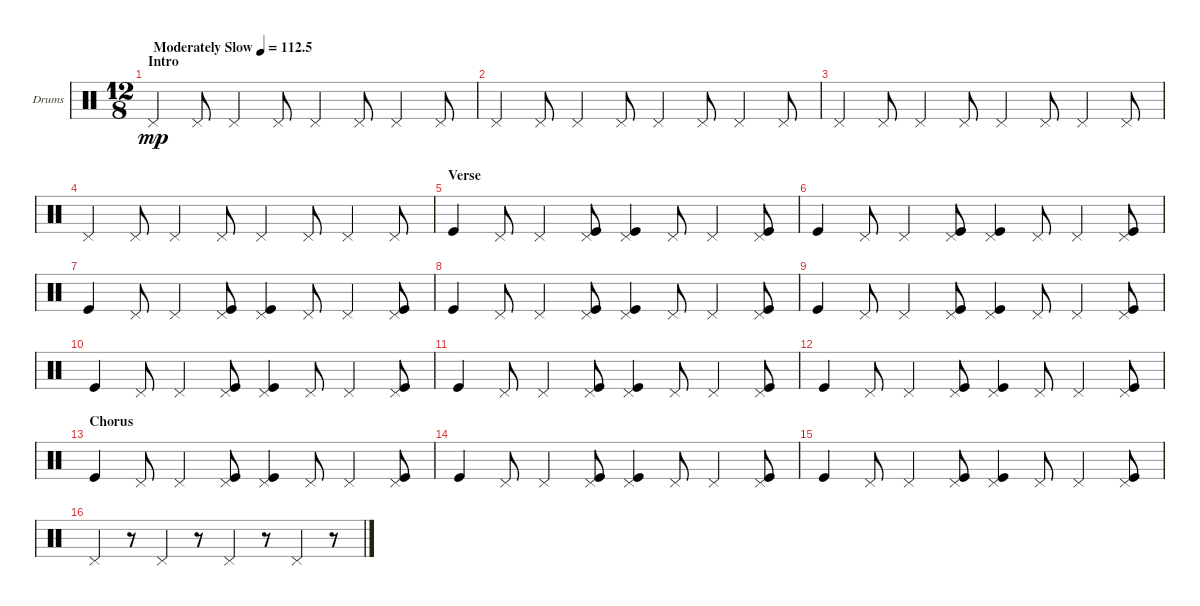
\defaultSystemsLayout 4
\bracketExtendMode groupsimilarinstruments
\firstSystemTrackNameOrientation horizontal
\otherSystemsTrackNameOrientation horizontal
\track ("Drumkit" "Drums") {instrument percussion}
\staff {score}
\articulation defaults
\ts (12 8)
\section ("" "Intro")
\tempo (112.5 "Moderately Slow")
\clef neutral
\scale
0.474178
\ks c "Pedal Hi-Hat (hit)".4{dy mp} "Pedal Hi-Hat (hit)".8 "Pedal Hi-Hat (hit)".4 "Pedal Hi-Hat (hit)".8 "Pedal Hi-Hat (hit)".4 "Pedal Hi-Hat (hit)".8 "Pedal Hi-Hat (hit)".4 "Pedal Hi-Hat (hit)".8
|
\scale
0.262911 "Pedal Hi-Hat (hit)".4 "Pedal Hi-Hat (hit)".8 "Pedal Hi-Hat (hit)".4 "Pedal Hi-Hat (hit)".8 "Pedal Hi-Hat (hit)".4 "Pedal Hi-Hat (hit)".8 "Pedal Hi-Hat (hit)".4 "Pedal Hi-Hat (hit)".8 |
\scale
0.262911 "Pedal Hi-Hat (hit)".4 "Pedal Hi-Hat (hit)".8 "Pedal Hi-Hat (hit)".4 "Pedal Hi-Hat (hit)".8 "Pedal Hi-Hat (hit)".4 "Pedal Hi-Hat (hit)".8 "Pedal Hi-Hat (hit)".4 "Pedal Hi-Hat (hit)".8 |
\scale
0.311111 "Pedal Hi-Hat (hit)".4 "Pedal Hi-Hat (hit)".8 "Pedal Hi-Hat (hit)".4 "Pedal Hi-Hat (hit)".8 "Pedal Hi-Hat (hit)".4 "Pedal Hi-Hat (hit)".8 "Pedal Hi-Hat (hit)".4 "Pedal Hi-Hat (hit)".8 |
\section ("" "Verse")
\scale
0.377778 "Kick (hit)".4 "Pedal Hi-Hat (hit)".8 "Pedal Hi-Hat (hit)".4 ("Pedal Hi-Hat (hit)" "Kick (hit)").8 ("Pedal Hi-Hat (hit)" "Kick (hit)").4 "Pedal Hi-Hat (hit)".8 "Pedal Hi-Hat (hit)".4 ("Pedal Hi-Hat (hit)" "Kick (hit)").8 |
\scale
0.311111 "Kick (hit)".4 "Pedal Hi-Hat (hit)".8 "Pedal Hi-Hat (hit)".4 ("Pedal Hi-Hat (hit)" "Kick (hit)").8 ("Pedal Hi-Hat (hit)" "Kick (hit)").4 "Pedal Hi-Hat (hit)".8 "Pedal Hi-Hat (hit)".4 ("Pedal Hi-Hat (hit)" "Kick (hit)").8 |
\scale
0.333333 "Kick (hit)".4 "Pedal Hi-Hat (hit)".8 "Pedal Hi-Hat (hit)".4 ("Pedal Hi-Hat (hit)" "Kick (hit)").8 ("Pedal Hi-Hat (hit)" "Kick (hit)").4 "Pedal Hi-Hat (hit)".8 "Pedal Hi-Hat (hit)".4 ("Pedal Hi-Hat (hit)" "Kick (hit)").8 |
\scale
0.333333 "Kick (hit)".4 "Pedal Hi-Hat (hit)".8 "Pedal Hi-Hat (hit)".4 ("Pedal Hi-Hat (hit)" "Kick (hit)").8 ("Pedal Hi-Hat (hit)" "Kick (hit)").4 "Pedal Hi-Hat (hit)".8 "Pedal Hi-Hat (hit)".4 ("Pedal Hi-Hat (hit)" "Kick (hit)").8 |
\scale
0.333333 "Kick (hit)".4 "Pedal Hi-Hat (hit)".8 "Pedal Hi-Hat (hit)".4 ("Pedal Hi-Hat (hit)" "Kick (hit)").8 ("Pedal Hi-Hat (hit)" "Kick (hit)").4 "Pedal Hi-Hat (hit)".8 "Pedal Hi-Hat (hit)".4 ("Pedal Hi-Hat (hit)" "Kick (hit)").8 |
\scale
0.333333 "Kick (hit)".4 "Pedal Hi-Hat (hit)".8 "Pedal Hi-Hat (hit)".4 ("Pedal Hi-Hat (hit)" "Kick (hit)").8 ("Pedal Hi-Hat (hit)" "Kick (hit)").4 "Pedal Hi-Hat (hit)".8 "Pedal Hi-Hat (hit)".4 ("Pedal Hi-Hat (hit)" "Kick (hit)").8 |
\scale
0.333333 "Kick (hit)".4 "Pedal Hi-Hat (hit)".8 "Pedal Hi-Hat (hit)".4 ("Pedal Hi-Hat (hit)" "Kick (hit)").8 ("Pedal Hi-Hat (hit)" "Kick (hit)").4 "Pedal Hi-Hat (hit)".8 "Pedal Hi-Hat (hit)".4 ("Pedal Hi-Hat (hit)" "Kick (hit)").8 |
\scale
0.333333 "Kick (hit)".4 "Pedal Hi-Hat (hit)".8 "Pedal Hi-Hat (hit)".4 ("Pedal Hi-Hat (hit)" "Kick (hit)").8 ("Pedal Hi-Hat (hit)" "Kick (hit)").4 "Pedal Hi-Hat (hit)".8 "Pedal Hi-Hat (hit)".4 ("Pedal Hi-Hat (hit)" "Kick (hit)").8 |
\section ("" "Chorus")
\scale
0.333333 "Kick (hit)".4 "Pedal Hi-Hat (hit)".8 "Pedal Hi-Hat (hit)".4 ("Pedal Hi-Hat (hit)" "Kick (hit)").8 ("Pedal Hi-Hat (hit)" "Kick (hit)").4 "Pedal Hi-Hat (hit)".8 "Pedal Hi-Hat (hit)".4 ("Pedal Hi-Hat (hit)" "Kick (hit)").8 |
\scale
0.333333 "Kick (hit)".4 "Pedal Hi-Hat (hit)".8 "Pedal Hi-Hat (hit)".4 ("Pedal Hi-Hat (hit)" "Kick (hit)").8 ("Pedal Hi-Hat (hit)" "Kick (hit)").4 "Pedal Hi-Hat (hit)".8 "Pedal Hi-Hat (hit)".4 ("Pedal Hi-Hat (hit)" "Kick (hit)").8 |
\scale
0.333333 "Kick (hit)".4 "Pedal Hi-Hat (hit)".8 "Pedal Hi-Hat (hit)".4 ("Pedal Hi-Hat (hit)" "Kick (hit)").8 ("Pedal Hi-Hat (hit)" "Kick (hit)").4 "Pedal Hi-Hat (hit)".8 "Pedal Hi-Hat (hit)".4 ("Pedal Hi-Hat (hit)" "Kick (hit)").8 |
\scale
0.333333 "Pedal Hi-Hat (hit)".4 r.8 "Pedal Hi-Hat (hit)".4 r.8 "Pedal Hi-Hat (hit)".4 r.8 "Pedal Hi-Hat (hit)".4 r.8
